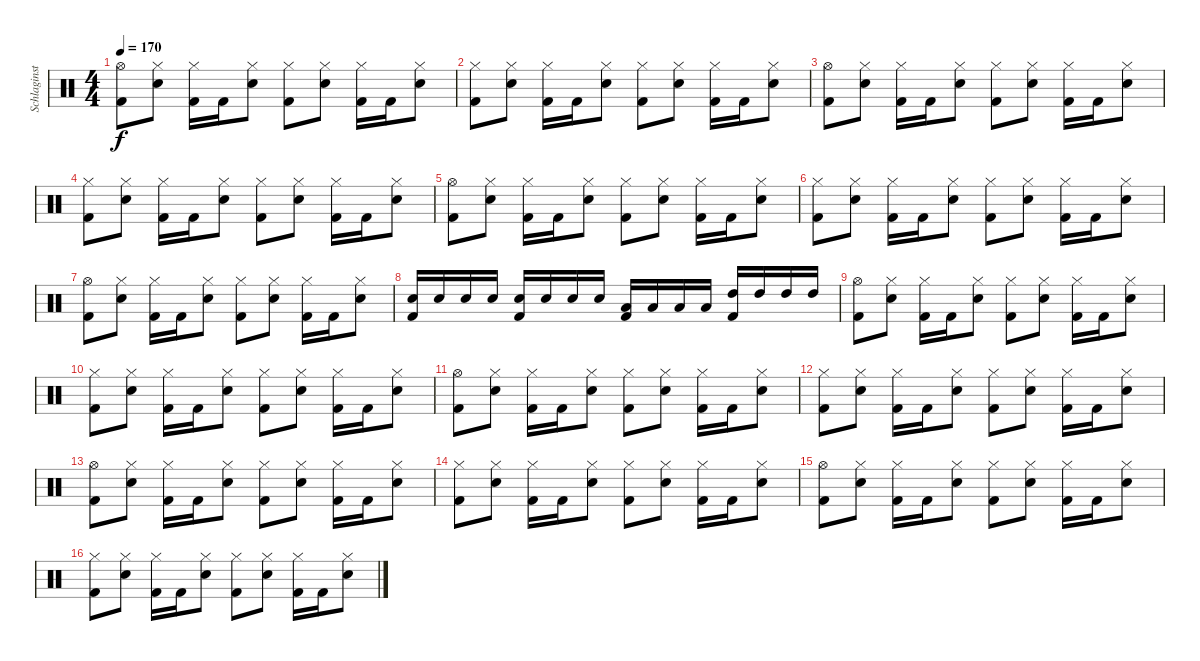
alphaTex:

\track ("Schlaginstrumente - Auswahl" "Schlaginst") {instrument percussion}
\staff {score}
\articulation defaults
\ts (4 4)
\tempo 170
\clef neutral
\ks c
("Hi-Hat (open)" "Kick (hit) 2").8{dy f} ("Hi-Hat (closed)" "Snare (hit) 2").8 ("Hi-Hat (closed)" "Kick (hit) 2").16 "Kick (hit) 2".16 ("Hi-Hat (closed)" "Snare (hit) 2").8 ("Hi-Hat (closed)" "Kick (hit) 2").8 ("Hi-Hat (closed)" "Snare (hit) 2").8 ("Hi-Hat (closed)" "Kick (hit) 2").16 "Kick (hit) 2".16 ("Hi-Hat (closed)" "Snare (hit) 2").8 |
("Hi-Hat (closed)" "Kick (hit) 2").8 ("Hi-Hat (closed)" "Snare (hit) 2").8 ("Hi-Hat (closed)" "Kick (hit) 2").16 "Kick (hit) 2".16 ("Hi-Hat (closed)" "Snare (hit) 2").8 ("Hi-Hat (closed)" "Kick (hit) 2").8 ("Hi-Hat (closed)" "Snare (hit) 2").8 ("Hi-Hat (closed)" "Kick (hit) 2").16 "Kick (hit) 2".16 ("Hi-Hat (closed)" "Snare (hit) 2").8 |
("Hi-Hat (open)" "Kick (hit) 2").8 ("Hi-Hat (closed)" "Snare (hit) 2").8 ("Hi-Hat (closed)" "Kick (hit) 2").16 "Kick (hit) 2".16 ("Hi-Hat (closed)" "Snare (hit) 2").8 ("Hi-Hat (closed)" "Kick (hit) 2").8 ("Hi-Hat (closed)" "Snare (hit) 2").8 ("Hi-Hat (closed)" "Kick (hit) 2").16 "Kick (hit) 2".16 ("Hi-Hat (closed)" "Snare (hit) 2").8 |
("Hi-Hat (closed)" "Kick (hit) 2").8 ("Hi-Hat (closed)" "Snare (hit) 2").8 ("Hi-Hat (closed)" "Kick (hit) 2").16 "Kick (hit) 2".16 ("Hi-Hat (closed)" "Snare (hit) 2").8 ("Hi-Hat (closed)" "Kick (hit) 2").8 ("Hi-Hat (closed)" "Snare (hit) 2").8 ("Hi-Hat (closed)" "Kick (hit) 2").16 "Kick (hit) 2".16 ("Hi-Hat (closed)" "Snare (hit) 2").8 |
("Hi-Hat (open)" "Kick (hit) 2").8 ("Hi-Hat (closed)" "Snare (hit) 2").8 ("Hi-Hat (closed)" "Kick (hit) 2").16 "Kick (hit) 2".16 ("Hi-Hat (closed)" "Snare (hit) 2").8 ("Hi-Hat (closed)" "Kick (hit) 2").8 ("Hi-Hat (closed)" "Snare (hit) 2").8 ("Hi-Hat (closed)" "Kick (hit) 2").16 "Kick (hit) 2".16 ("Hi-Hat (closed)" "Snare (hit) 2").8 |
("Hi-Hat (closed)" "Kick (hit) 2").8 ("Hi-Hat (closed)" "Snare (hit) 2").8 ("Hi-Hat (closed)" "Kick (hit) 2").16 "Kick (hit) 2".16 ("Hi-Hat (closed)" "Snare (hit) 2").8 ("Hi-Hat (closed)" "Kick (hit) 2").8 ("Hi-Hat (closed)" "Snare (hit) 2").8 ("Hi-Hat (closed)" "Kick (hit) 2").16 "Kick (hit) 2".16 ("Hi-Hat (closed)" "Snare (hit) 2").8 |
("Hi-Hat (open)" "Kick (hit) 2").8 ("Hi-Hat (closed)" "Snare (hit) 2").8 ("Hi-Hat (closed)" "Kick (hit) 2").16 "Kick (hit) 2".16 ("Hi-Hat (closed)" "Snare (hit) 2").8 ("Hi-Hat (closed)" "Kick (hit) 2").8 ("Hi-Hat (closed)" "Snare (hit) 2").8 ("Hi-Hat (closed)" "Kick (hit) 2").16 "Kick (hit) 2".16 ("Hi-Hat (closed)" "Snare (hit) 2").8 |
("Snare (hit) 2" "Kick (hit) 2").16 "Snare (hit) 2".16 "Snare (hit) 2".16 "Snare (hit) 2".16 ("Snare (hit) 2" "Kick (hit) 2").16 "Snare (hit) 2".16 "Snare (hit) 2".16 "Snare (hit) 2".16 ("Low Tom (hit)" "Kick (hit) 2").16 "Low Tom (hit)".16 "Low Tom (hit)".16 "Low Tom (hit)".16 ("High Tom (hit)" "Kick (hit) 2").16 "High Tom (hit)".16 "High Tom (hit)".16 "High Tom (hit)".16 |
("Hi-Hat (open)" "Kick (hit) 2").8 ("Hi-Hat (closed)" "Snare (hit) 2").8 ("Hi-Hat (closed)" "Kick (hit) 2").16 "Kick (hit) 2".16 ("Hi-Hat (closed)" "Snare (hit) 2").8 ("Hi-Hat (closed)" "Kick (hit) 2").8 ("Hi-Hat (closed)" "Snare (hit) 2").8 ("Hi-Hat (closed)" "Kick (hit) 2").16 "Kick (hit) 2".16 ("Hi-Hat (closed)" "Snare (hit) 2").8 |
("Hi-Hat (closed)" "Kick (hit) 2").8 ("Hi-Hat (closed)" "Snare (hit) 2").8 ("Hi-Hat (closed)" "Kick (hit) 2").16 "Kick (hit) 2".16 ("Hi-Hat (closed)" "Snare (hit) 2").8 ("Hi-Hat (closed)" "Kick (hit) 2").8 ("Hi-Hat (closed)" "Snare (hit) 2").8 ("Hi-Hat (closed)" "Kick (hit) 2").16 "Kick (hit) 2".16 ("Hi-Hat (closed)" "Snare (hit) 2").8 |
("Hi-Hat (open)" "Kick (hit) 2").8 ("Hi-Hat (closed)" "Snare (hit) 2").8 ("Hi-Hat (closed)" "Kick (hit) 2").16 "Kick (hit) 2".16 ("Hi-Hat (closed)" "Snare (hit) 2").8 ("Hi-Hat (closed)" "Kick (hit) 2").8 ("Hi-Hat (closed)" "Snare (hit) 2").8 ("Hi-Hat (closed)" "Kick (hit) 2").16 "Kick (hit) 2".16 ("Hi-Hat (closed)" "Snare (hit) 2").8 |
("Hi-Hat (closed)" "Kick (hit) 2").8 ("Hi-Hat (closed)" "Snare (hit) 2").8 ("Hi-Hat (closed)" "Kick (hit) 2").16 "Kick (hit) 2".16 ("Hi-Hat (closed)" "Snare (hit) 2").8 ("Hi-Hat (closed)" "Kick (hit) 2").8 ("Hi-Hat (closed)" "Snare (hit) 2").8 ("Hi-Hat (closed)" "Kick (hit) 2").16 "Kick (hit) 2".16 ("Hi-Hat (closed)" "Snare (hit) 2").8 |
("Hi-Hat (open)" "Kick (hit) 2").8 ("Hi-Hat (closed)" "Snare (hit) 2").8 ("Hi-Hat (closed)" "Kick (hit) 2").16 "Kick (hit) 2".16 ("Hi-Hat (closed)" "Snare (hit) 2").8 ("Hi-Hat (closed)" "Kick (hit) 2").8 ("Hi-Hat (closed)" "Snare (hit) 2").8 ("Hi-Hat (closed)" "Kick (hit) 2").16 "Kick (hit) 2".16 ("Hi-Hat (closed)" "Snare (hit) 2").8 |
("Hi-Hat (closed)" "Kick (hit) 2").8 ("Hi-Hat (closed)" "Snare (hit) 2").8 ("Hi-Hat (closed)" "Kick (hit) 2").16 "Kick (hit) 2".16 ("Hi-Hat (closed)" "Snare (hit) 2").8 ("Hi-Hat (closed)" "Kick (hit) 2").8 ("Hi-Hat (closed)" "Snare (hit) 2").8 ("Hi-Hat (closed)" "Kick (hit) 2").16 "Kick (hit) 2".16 ("Hi-Hat (closed)" "Snare (hit) 2").8 |
("Hi-Hat (open)" "Kick (hit) 2").8 ("Hi-Hat (closed)" "Snare (hit) 2").8 ("Hi-Hat (closed)" "Kick (hit) 2").16 "Kick (hit) 2".16 ("Hi-Hat (closed)" "Snare (hit) 2").8 ("Hi-Hat (closed)" "Kick (hit) 2").8 ("Hi-Hat (closed)" "Snare (hit) 2").8 ("Hi-Hat (closed)" "Kick (hit) 2").16 "Kick (hit) 2".16 ("Hi-Hat (closed)" "Snare (hit) 2").8 |
("Hi-Hat (closed)" "Kick (hit) 2").8 ("Hi-Hat (closed)" "Snare (hit) 2").8 ("Hi-Hat (closed)" "Kick (hit) 2").16 "Kick (hit) 2".16 ("Hi-Hat (closed)" "Snare (hit) 2").8 ("Hi-Hat (closed)" "Kick (hit) 2").8 ("Hi-Hat (closed)" "Snare (hit) 2").8 ("Hi-Hat (closed)" "Kick (hit) 2").16 "Kick (hit) 2".16 ("Hi-Hat (closed)" "Snare (hit) 2").8
